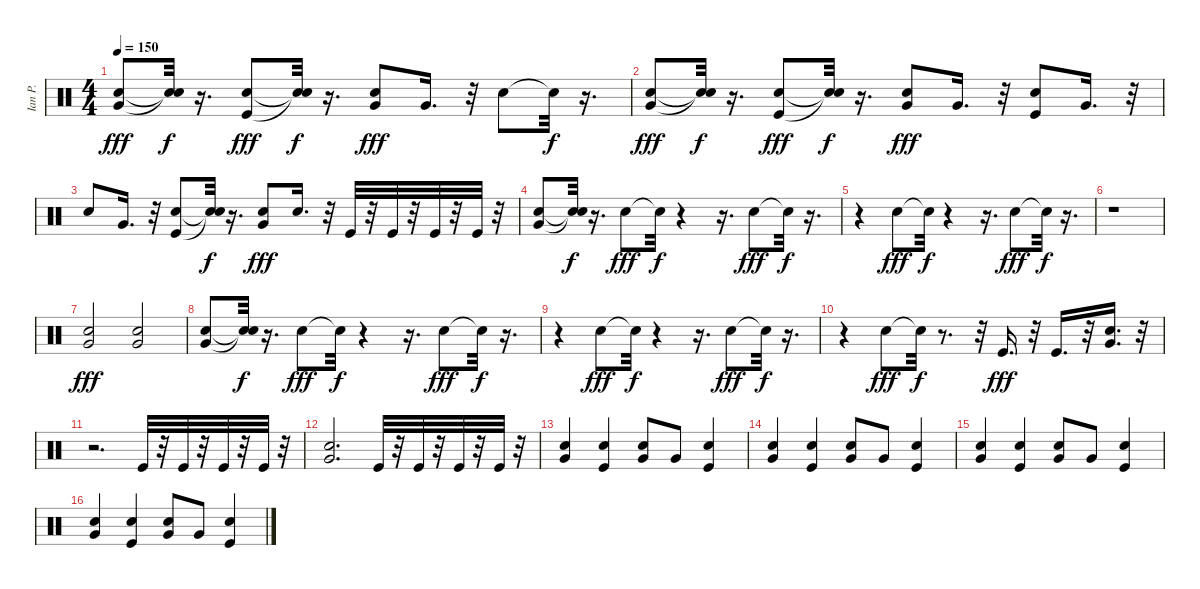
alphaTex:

\track ("Ian P." "Ian P.") {instrument percussion}
\staff {score}
\articulation defaults
\ts (4 4)
\tempo 150
\clef neutral
\ks c
("Electric Snare (hit)" "Very Low Tom (hit)").8{dy fff} ("Snare (hit)"{t} "Snare (hit)"{t}).32{dy f} r.16{d} ("Electric Snare (hit)" "Kick (hit)").8{dy fff} ("Snare (hit)"{t} "Snare (hit)"{t}).32{dy f} r.16{d} ("Electric Snare (hit)" "Very Low Tom (hit)").8{dy fff} "Very Low Tom (hit)".16{d} r.32 "Electric Snare (hit)".8 "Snare (hit)"{t}.32{dy f} r.16{d} |
("Electric Snare (hit)" "Very Low Tom (hit)").8{dy fff} ("Snare (hit)"{t} "Snare (hit)"{t}).32{dy f} r.16{d} ("Electric Snare (hit)" "Kick (hit)").8{dy fff} ("Snare (hit)"{t} "Snare (hit)"{t}).32{dy f} r.16{d} ("Electric Snare (hit)" "Very Low Tom (hit)").8{dy fff} "Very Low Tom (hit)".16{d} r.32 ("Kick (hit)" "Electric Snare (hit)").8 "Very Low Tom (hit)".16{d} r.32 |
"Electric Snare (hit)".8 "Very Low Tom (hit)".16{d} r.32 ("Electric Snare (hit)" "Kick (hit)").8 ("Snare (hit)"{t} "Snare (hit)"{t}).32{dy f} r.16{d} ("Electric Snare (hit)" "Very Low Tom (hit)").8{dy fff} "Electric Snare (hit)".16{d} r.32 "Kick (hit)".32 r.32 "Kick (hit)".32 r.32 "Kick (hit)".32 r.32 "Kick (hit)".32 r.32 |
("Electric Snare (hit)" "Very Low Tom (hit)").8 ("Snare (hit)"{t} "Snare (hit)"{t}).32{dy f} r.16{d} "Electric Snare (hit)".8{dy fff} "Snare (hit)"{t}.32{dy f} r.4 r.16{d} "Electric Snare (hit)".8{dy fff} "Snare (hit)"{t}.32{dy f} r.16{d} |
r.4 "Electric Snare (hit)".8{dy fff} "Snare (hit)"{t}.32{dy f} r.4 r.16{d} "Electric Snare (hit)".8{dy fff} "Snare (hit)"{t}.32{dy f} r.16{d} |
r.1 |
("Very Low Tom (hit)" "Electric Snare (hit)").2{dy fff} ("Very Low Tom (hit)" "Electric Snare (hit)").2 |
("Electric Snare (hit)" "Very Low Tom (hit)").8 ("Snare (hit)"{t} "Snare (hit)"{t}).32{dy f} r.16{d} "Electric Snare (hit)".8{dy fff} "Snare (hit)"{t}.32{dy f} r.4 r.16{d} "Electric Snare (hit)".8{dy fff} "Snare (hit)"{t}.32{dy f} r.16{d} |
r.4 "Electric Snare (hit)".8{dy fff} "Snare (hit)"{t}.32{dy f} r.4 r.16{d} "Electric Snare (hit)".8{dy fff} "Snare (hit)"{t}.32{dy f} r.16{d} |
r.4 "Electric Snare (hit)".8{dy fff} "Snare (hit)"{t}.32{dy f} r.8{d} r.32 "Kick (hit)".16{d dy fff} r.32 "Kick (hit)".16{d} r.32 ("Very Low Tom (hit)" "Electric Snare (hit)").16{d} r.32 |
r.2{d} "Kick (hit)".32 r.32 "Kick (hit)".32 r.32 "Kick (hit)".32 r.32 "Kick (hit)".32 r.32 |
("Electric Snare (hit)" "Very Low Tom (hit)").2{d} "Kick (hit)".32 r.32 "Kick (hit)".32 r.32 "Kick (hit)".32 r.32 "Kick (hit)".32 r.32 |
("Very Low Tom (hit)" "Electric Snare (hit)").4 ("Kick (hit)" "Electric Snare (hit)").4 ("Electric Snare (hit)" "Very Low Tom (hit)").8 "Very Low Tom (hit)".8 ("Kick (hit)" "Electric Snare (hit)").4 |
("Very Low Tom (hit)" "Electric Snare (hit)").4 ("Kick (hit)" "Electric Snare (hit)").4 ("Electric Snare (hit)" "Very Low Tom (hit)").8 "Very Low Tom (hit)".8 ("Kick (hit)" "Electric Snare (hit)").4 |
("Very Low Tom (hit)" "Electric Snare (hit)").4 ("Kick (hit)" "Electric Snare (hit)").4 ("Electric Snare (hit)" "Very Low Tom (hit)").8 "Very Low Tom (hit)".8 ("Kick (hit)" "Electric Snare (hit)").4 |
("Very Low Tom (hit)" "Electric Snare (hit)").4 ("Kick (hit)" "Electric Snare (hit)").4 ("Electric Snare (hit)" "Very Low Tom (hit)").8 "Very Low Tom (hit)".8 ("Kick (hit)" "Electric Snare (hit)").4
